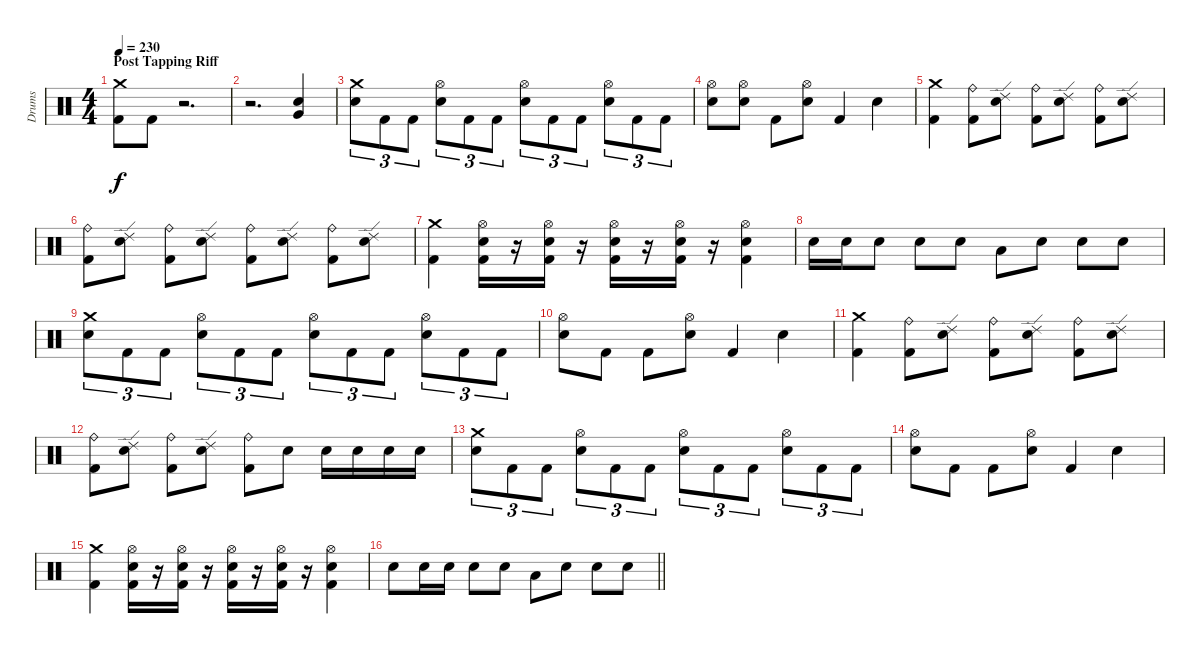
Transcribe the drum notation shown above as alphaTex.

\track ("Drums" "Drums") {instrument percussion}
\staff {score}
\articulation defaults
\ts (4 4)
\section ("" "Post Tapping Riff")
\tempo 230
\clef neutral
\ks c
("Crash medium (hit)" "Kick (hit) 2").8{dy f} "Kick (hit) 2".8 r.2{d} |
r.2{d} ("Very Low Tom (hit)" "Snare (hit) 2").4 |
("Crash medium (hit)" "Snare (hit) 2").8{tu (3 2)} "Kick (hit) 2".8{tu (3 2)} "Kick (hit) 2".8{tu (3 2)} ("Hi-Hat (open)" "Snare (hit) 2").8{tu (3 2)} "Kick (hit) 2".8{tu (3 2)} "Kick (hit) 2".8{tu (3 2)} ("Hi-Hat (open)" "Snare (hit) 2").8{tu (3 2)} "Kick (hit) 2".8{tu (3 2)} "Kick (hit) 2".8{tu (3 2)} ("Hi-Hat (open)" "Snare (hit) 2").8{tu (3 2)} "Kick (hit) 2".8{tu (3 2)} "Kick (hit) 2".8{tu (3 2)} |
("Hi-Hat (open)" "Snare (hit) 2").8 ("Hi-Hat (open)" "Snare (hit) 2").8 "Kick (hit) 2".8 ("Hi-Hat (open)" "Snare (hit) 2").8 "Kick (hit) 2".4 "Snare (hit) 2".4 |
("Crash medium (hit)" "Kick (hit) 2").4 ("Ride (bell)" "Kick (hit) 2").8 ("Ride (edge) 2" "Snare (hit) 2").8 ("Ride (bell)" "Kick (hit) 2").8 ("Ride (edge) 2" "Snare (hit) 2").8 ("Ride (bell)" "Kick (hit) 2").8 ("Ride (edge) 2" "Snare (hit) 2").8 |
("Ride (bell)" "Kick (hit) 2").8 ("Ride (edge) 2" "Snare (hit) 2").8 ("Ride (bell)" "Kick (hit) 2").8 ("Ride (edge) 2" "Snare (hit) 2").8 ("Ride (bell)" "Kick (hit) 2").8 ("Ride (edge) 2" "Snare (hit) 2").8 ("Ride (bell)" "Kick (hit) 2").8 ("Ride (edge) 2" "Snare (hit) 2").8 |
("Crash medium (hit)" "Kick (hit) 2").4 ("Hi-Hat (open)" "Snare (hit) 2" "Kick (hit) 2").16 r.16 ("Hi-Hat (open)" "Snare (hit) 2" "Kick (hit) 2").16 r.16 ("Hi-Hat (open)" "Snare (hit) 2" "Kick (hit) 2").16 r.16 ("Hi-Hat (open)" "Snare (hit) 2" "Kick (hit) 2").16 r.16 ("Hi-Hat (open)" "Snare (hit) 2" "Kick (hit) 2").4 |
"Snare (hit) 2".16 "Snare (hit) 2".16 "Snare (hit) 2".8 "Snare (hit) 2".8 "Snare (hit) 2".8 "Low Tom (hit)".8 "Snare (hit) 2".8 "Snare (hit) 2".8 "Snare (hit) 2".8 |
("Crash medium (hit)" "Snare (hit) 2").8{tu (3 2)} "Kick (hit) 2".8{tu (3 2)} "Kick (hit) 2".8{tu (3 2)} ("Hi-Hat (open)" "Snare (hit) 2").8{tu (3 2)} "Kick (hit) 2".8{tu (3 2)} "Kick (hit) 2".8{tu (3 2)} ("Hi-Hat (open)" "Snare (hit) 2").8{tu (3 2)} "Kick (hit) 2".8{tu (3 2)} "Kick (hit) 2".8{tu (3 2)} ("Hi-Hat (open)" "Snare (hit) 2").8{tu (3 2)} "Kick (hit) 2".8{tu (3 2)} "Kick (hit) 2".8{tu (3 2)} |
("Hi-Hat (open)" "Snare (hit) 2").8 "Kick (hit) 2".8 "Kick (hit) 2".8 ("Hi-Hat (open)" "Snare (hit) 2").8 "Kick (hit) 2".4 "Snare (hit) 2".4 |
("Crash medium (hit)" "Kick (hit) 2").4 ("Ride (bell)" "Kick (hit) 2").8 ("Ride (edge) 2" "Snare (hit) 2").8 ("Ride (bell)" "Kick (hit) 2").8 ("Ride (edge) 2" "Snare (hit) 2").8 ("Ride (bell)" "Kick (hit) 2").8 ("Ride (edge) 2" "Snare (hit) 2").8 |
("Ride (bell)" "Kick (hit) 2").8 ("Ride (edge) 2" "Snare (hit) 2").8 ("Ride (bell)" "Kick (hit) 2").8 ("Ride (edge) 2" "Snare (hit) 2").8 ("Ride (bell)" "Kick (hit) 2").8 "Snare (hit) 2".8 "Snare (hit) 2".16 "Snare (hit) 2".16 "Snare (hit) 2".16 "Snare (hit) 2".16 |
("Crash medium (hit)" "Snare (hit) 2").8{tu (3 2)} "Kick (hit) 2".8{tu (3 2)} "Kick (hit) 2".8{tu (3 2)} ("Hi-Hat (open)" "Snare (hit) 2").8{tu (3 2)} "Kick (hit) 2".8{tu (3 2)} "Kick (hit) 2".8{tu (3 2)} ("Hi-Hat (open)" "Snare (hit) 2").8{tu (3 2)} "Kick (hit) 2".8{tu (3 2)} "Kick (hit) 2".8{tu (3 2)} ("Hi-Hat (open)" "Snare (hit) 2").8{tu (3 2)} "Kick (hit) 2".8{tu (3 2)} "Kick (hit) 2".8{tu (3 2)} |
("Hi-Hat (open)" "Snare (hit) 2").8 "Kick (hit) 2".8 "Kick (hit) 2".8 ("Hi-Hat (open)" "Snare (hit) 2").8 "Kick (hit) 2".4 "Snare (hit) 2".4 |
("Crash medium (hit)" "Kick (hit) 2").4 ("Hi-Hat (open)" "Snare (hit) 2" "Kick (hit) 2").16 r.16 ("Hi-Hat (open)" "Snare (hit) 2" "Kick (hit) 2").16 r.16 ("Hi-Hat (open)" "Snare (hit) 2" "Kick (hit) 2").16 r.16 ("Hi-Hat (open)" "Snare (hit) 2" "Kick (hit) 2").16 r.16 ("Hi-Hat (open)" "Snare (hit) 2" "Kick (hit) 2").4 |
\barLineRight lightlight "Snare (hit) 2".8 "Snare (hit) 2".16 "Snare (hit) 2".16 "Snare (hit) 2".8 "Snare (hit) 2".8 "Low Tom (hit)".8 "Snare (hit) 2".8 "Snare (hit) 2".8 "Snare (hit) 2".8
